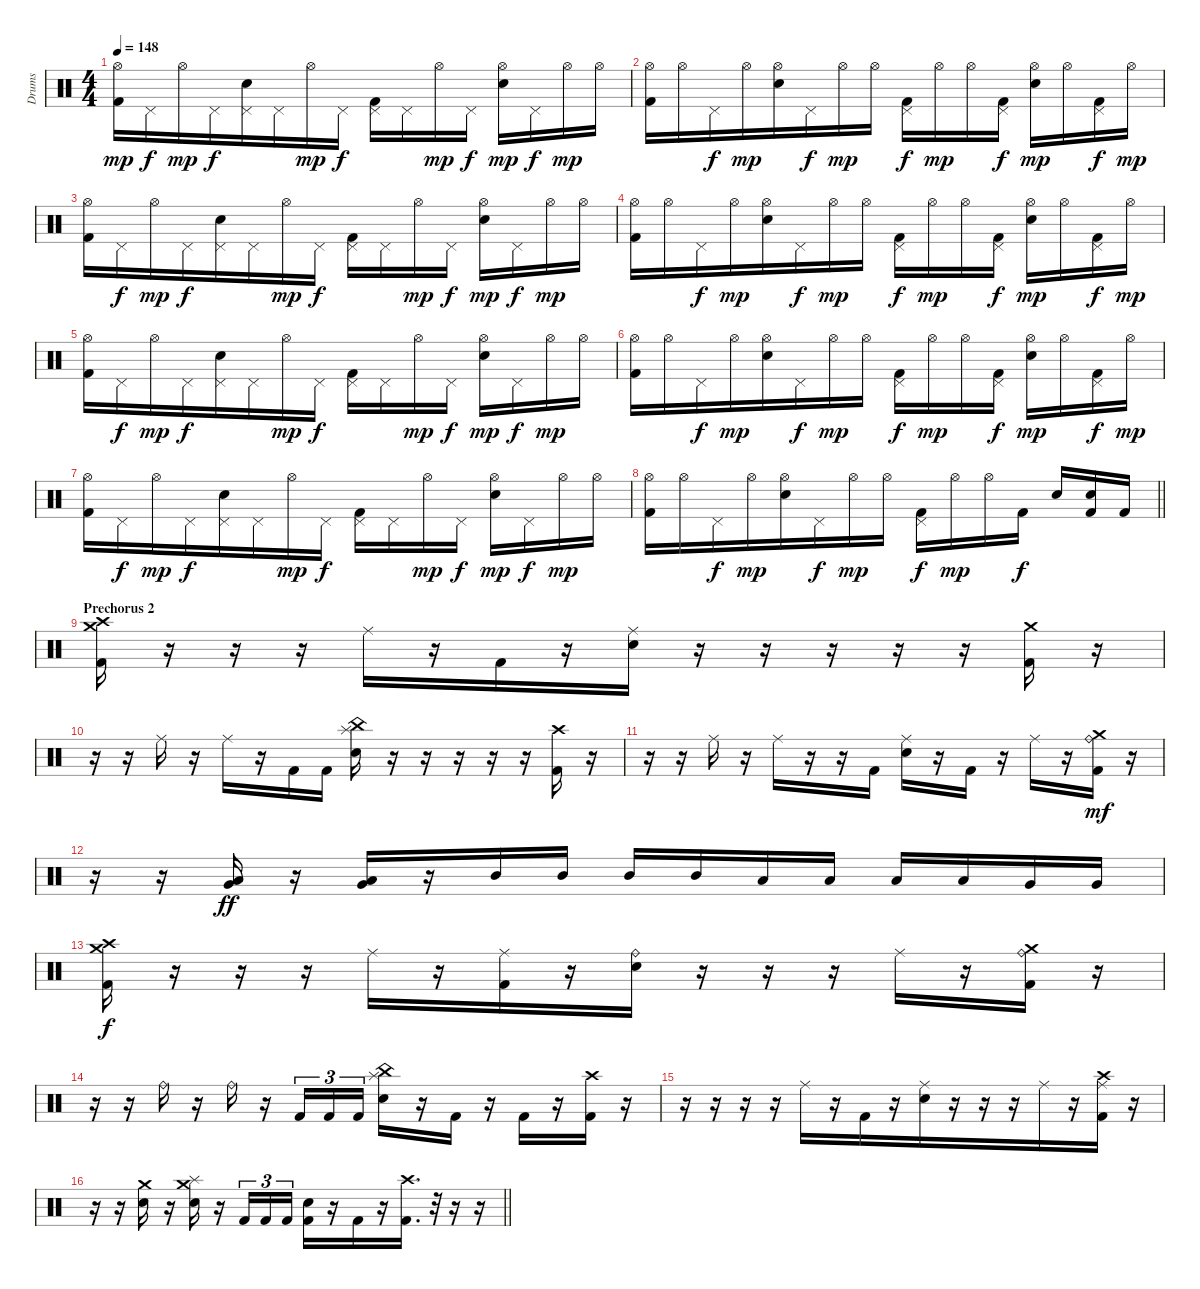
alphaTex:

\track ("Drums" "Drums") {instrument percussion}
\staff {score}
\articulation defaults
\ts (4 4)
\tempo 148
\clef neutral
\ks c
("Hi-Hat (open)" "Kick (hit) 2").16{dy mp} "Pedal Hi-Hat (hit)".16{dy f} "Hi-Hat (open)".16{dy mp beam merge} "Pedal Hi-Hat (hit)".16{dy f beam merge} ("Pedal Hi-Hat (hit)" "Snare (hit) 2").16{beam merge} "Pedal Hi-Hat (hit)".16 "Hi-Hat (open)".16{dy mp beam merge} "Pedal Hi-Hat (hit)".16{dy f} ("Pedal Hi-Hat (hit)" "Kick (hit) 2").16 "Pedal Hi-Hat (hit)".16 "Hi-Hat (open)".16{dy mp beam merge} "Pedal Hi-Hat (hit)".16{dy f} ("Hi-Hat (open)" "Snare (hit) 2").16{dy mp} "Pedal Hi-Hat (hit)".16{dy f} "Hi-Hat (open)".16{dy mp} "Hi-Hat (open)".16 |
("Hi-Hat (open)" "Kick (hit) 2").16 "Hi-Hat (open)".16 "Pedal Hi-Hat (hit)".16{dy f beam merge} "Hi-Hat (open)".16{dy mp beam merge} ("Hi-Hat (open)" "Snare (hit) 2").16{beam merge} "Pedal Hi-Hat (hit)".16{dy f} "Hi-Hat (open)".16{dy mp beam merge} "Hi-Hat (open)".16 ("Pedal Hi-Hat (hit)" "Kick (hit) 2").16{dy f} "Hi-Hat (open)".16{dy mp} "Hi-Hat (open)".16{beam merge} ("Pedal Hi-Hat (hit)" "Kick (hit) 2").16{dy f} ("Hi-Hat (open)" "Snare (hit) 2").16{dy mp} "Hi-Hat (open)".16 ("Pedal Hi-Hat (hit)" "Kick (hit) 2").16{dy f} "Hi-Hat (open)".16{dy mp} |
("Hi-Hat (open)" "Kick (hit) 2").16 "Pedal Hi-Hat (hit)".16{dy f} "Hi-Hat (open)".16{dy mp beam merge} "Pedal Hi-Hat (hit)".16{dy f beam merge} ("Pedal Hi-Hat (hit)" "Snare (hit) 2").16{beam merge} "Pedal Hi-Hat (hit)".16 "Hi-Hat (open)".16{dy mp beam merge} "Pedal Hi-Hat (hit)".16{dy f} ("Pedal Hi-Hat (hit)" "Kick (hit) 2").16 "Pedal Hi-Hat (hit)".16 "Hi-Hat (open)".16{dy mp beam merge} "Pedal Hi-Hat (hit)".16{dy f} ("Hi-Hat (open)" "Snare (hit) 2").16{dy mp} "Pedal Hi-Hat (hit)".16{dy f} "Hi-Hat (open)".16{dy mp} "Hi-Hat (open)".16 |
("Hi-Hat (open)" "Kick (hit) 2").16 "Hi-Hat (open)".16 "Pedal Hi-Hat (hit)".16{dy f beam merge} "Hi-Hat (open)".16{dy mp beam merge} ("Hi-Hat (open)" "Snare (hit) 2").16{beam merge} "Pedal Hi-Hat (hit)".16{dy f} "Hi-Hat (open)".16{dy mp beam merge} "Hi-Hat (open)".16 ("Pedal Hi-Hat (hit)" "Kick (hit) 2").16{dy f} "Hi-Hat (open)".16{dy mp} "Hi-Hat (open)".16{beam merge} ("Pedal Hi-Hat (hit)" "Kick (hit) 2").16{dy f} ("Hi-Hat (open)" "Snare (hit) 2").16{dy mp} "Hi-Hat (open)".16 ("Pedal Hi-Hat (hit)" "Kick (hit) 2").16{dy f} "Hi-Hat (open)".16{dy mp} |
("Hi-Hat (open)" "Kick (hit) 2").16 "Pedal Hi-Hat (hit)".16{dy f} "Hi-Hat (open)".16{dy mp beam merge} "Pedal Hi-Hat (hit)".16{dy f beam merge} ("Pedal Hi-Hat (hit)" "Snare (hit) 2").16{beam merge} "Pedal Hi-Hat (hit)".16 "Hi-Hat (open)".16{dy mp beam merge} "Pedal Hi-Hat (hit)".16{dy f} ("Pedal Hi-Hat (hit)" "Kick (hit) 2").16 "Pedal Hi-Hat (hit)".16 "Hi-Hat (open)".16{dy mp beam merge} "Pedal Hi-Hat (hit)".16{dy f} ("Hi-Hat (open)" "Snare (hit) 2").16{dy mp} "Pedal Hi-Hat (hit)".16{dy f} "Hi-Hat (open)".16{dy mp} "Hi-Hat (open)".16 |
("Hi-Hat (open)" "Kick (hit) 2").16 "Hi-Hat (open)".16 "Pedal Hi-Hat (hit)".16{dy f beam merge} "Hi-Hat (open)".16{dy mp beam merge} ("Hi-Hat (open)" "Snare (hit) 2").16{beam merge} "Pedal Hi-Hat (hit)".16{dy f} "Hi-Hat (open)".16{dy mp beam merge} "Hi-Hat (open)".16 ("Pedal Hi-Hat (hit)" "Kick (hit) 2").16{dy f} "Hi-Hat (open)".16{dy mp} "Hi-Hat (open)".16{beam merge} ("Pedal Hi-Hat (hit)" "Kick (hit) 2").16{dy f} ("Hi-Hat (open)" "Snare (hit) 2").16{dy mp} "Hi-Hat (open)".16 ("Pedal Hi-Hat (hit)" "Kick (hit) 2").16{dy f} "Hi-Hat (open)".16{dy mp} |
("Hi-Hat (open)" "Kick (hit) 2").16 "Pedal Hi-Hat (hit)".16{dy f} "Hi-Hat (open)".16{dy mp beam merge} "Pedal Hi-Hat (hit)".16{dy f beam merge} ("Pedal Hi-Hat (hit)" "Snare (hit) 2").16{beam merge} "Pedal Hi-Hat (hit)".16 "Hi-Hat (open)".16{dy mp beam merge} "Pedal Hi-Hat (hit)".16{dy f} ("Pedal Hi-Hat (hit)" "Kick (hit) 2").16 "Pedal Hi-Hat (hit)".16 "Hi-Hat (open)".16{dy mp beam merge} "Pedal Hi-Hat (hit)".16{dy f} ("Hi-Hat (open)" "Snare (hit) 2").16{dy mp} "Pedal Hi-Hat (hit)".16{dy f} "Hi-Hat (open)".16{dy mp} "Hi-Hat (open)".16 |
\barLineRight lightlight
("Hi-Hat (open)" "Kick (hit) 2").16 "Hi-Hat (open)".16 "Pedal Hi-Hat (hit)".16{dy f beam merge} "Hi-Hat (open)".16{dy mp beam merge} ("Hi-Hat (open)" "Snare (hit) 2").16{beam merge} "Pedal Hi-Hat (hit)".16{dy f} "Hi-Hat (open)".16{dy mp beam merge} "Hi-Hat (open)".16 ("Pedal Hi-Hat (hit)" "Kick (hit) 2").16{dy f} "Hi-Hat (open)".16{dy mp} "Hi-Hat (open)".16{beam merge} "Kick (hit) 2".16{dy f} "Snare (hit) 2".16 ("Snare (hit) 2" "Kick (hit) 2").16 "Kick (hit) 2".16 |
\section ("" "Prechorus 2")
("Crash medium (hit)" "Crash high (hit)" "Kick (hit) 2").16 r.16 r.16 r.16 "Ride (middle)".16 r.16 "Kick (hit) 2".16{beam merge} r.16{beam merge} ("Ride (middle)" "Snare (hit) 2").16 r.16{beam merge} r.16 r.16{beam merge} r.16 r.16 ("Crash medium (hit)" "Kick (hit) 2").16{beam merge} r.16 |
r.16 r.16{beam merge} "Ride (middle)".16 r.16 "Ride (middle)".16 r.16 "Kick (hit) 2".16 "Kick (hit) 2".16 ("China (hit)" "Splash (hit)" "Snare (hit) 2").16 r.16 r.16 r.16 r.16 r.16 ("Crash high (hit)" "Kick (hit) 2").16 r.16 |
r.16 r.16{beam merge} "Ride (middle)".16 r.16 "Ride (middle)".16 r.16 r.16 "Kick (hit) 2".16 ("Ride (middle)" "Snare (hit) 2").16 r.16 "Kick (hit) 2".16 r.16 "Ride (middle)".16 r.16 ("Crash medium (hit)" "Ride (bell)" "Kick (hit) 2").16{dy mf} r.16 |
r.16 r.16{beam merge} ("Low Floor Tom (hit)" "Very Low Tom (hit)").16{dy ff} r.16 ("Low Floor Tom (hit)" "Very Low Tom (hit)").16 r.16 "Mid Tom (hit)".16 "Mid Tom (hit)".16 "Mid Tom (hit)".16 "Mid Tom (hit)".16 "Low Tom (hit)".16 "Low Tom (hit)".16 "Low Tom (hit)".16 "Low Tom (hit)".16 "Very Low Tom (hit)".16 "Very Low Tom (hit)".16 |
("Crash medium (hit)" "Crash high (hit)" "Kick (hit) 2").16{dy f} r.16 r.16 r.16 "Ride (middle)".16 r.16 ("Ride (middle)" "Kick (hit) 2").16{beam merge} r.16{beam merge} ("Ride (bell)" "Snare (hit) 2").16 r.16{beam merge} r.16 r.16{beam merge} "Ride (middle)".16 r.16 ("Crash medium (hit)" "Ride (bell)" "Kick (hit) 2").16{beam merge} r.16 |
r.16 r.16{beam merge} "Ride (bell)".16 r.16 "Ride (bell)".16 r.16 "Kick (hit) 2".16{tu (3 2)} "Kick (hit) 2".16{tu (3 2)} "Kick (hit) 2".16{tu (3 2)} ("China (hit)" "Splash (hit)" "Snare (hit) 2").16 r.16 "Kick (hit) 2".16 r.16 "Kick (hit) 2".16 r.16 ("Crash high (hit)" "Kick (hit) 2").16 r.16 |
r.16 r.16{beam merge} r.16 r.16 "Ride (middle)".16 r.16{beam merge} "Kick (hit) 2".16{beam merge} r.16 ("Ride (middle)" "Snare (hit) 2").16{beam merge} r.16{beam merge} r.16 r.16{beam merge} "Ride (middle)".16 r.16{beam merge} ("Crash high (hit)" "Ride (middle)" "Kick (hit) 2").16{beam merge} r.16 |
\barLineRight lightlight
r.16 r.16 ("Crash medium (hit)" "Snare (hit) 2").16 r.16{beam merge} ("Crash medium (hit)" "Splash (hit)" "Snare (hit) 2").16 r.16 "Kick (hit) 2".16{tu (3 2)} "Kick (hit) 2".16{tu (3 2)} "Kick (hit) 2".16{tu (3 2)} ("Snare (hit) 2" "Kick (hit) 2").16 r.16 "Kick (hit) 2".16{beam merge} r.16 ("Crash high (hit)" "Kick (hit) 2").16{d beam merge} r.32{volume 0 beam merge} r.16{beam merge} r.16
